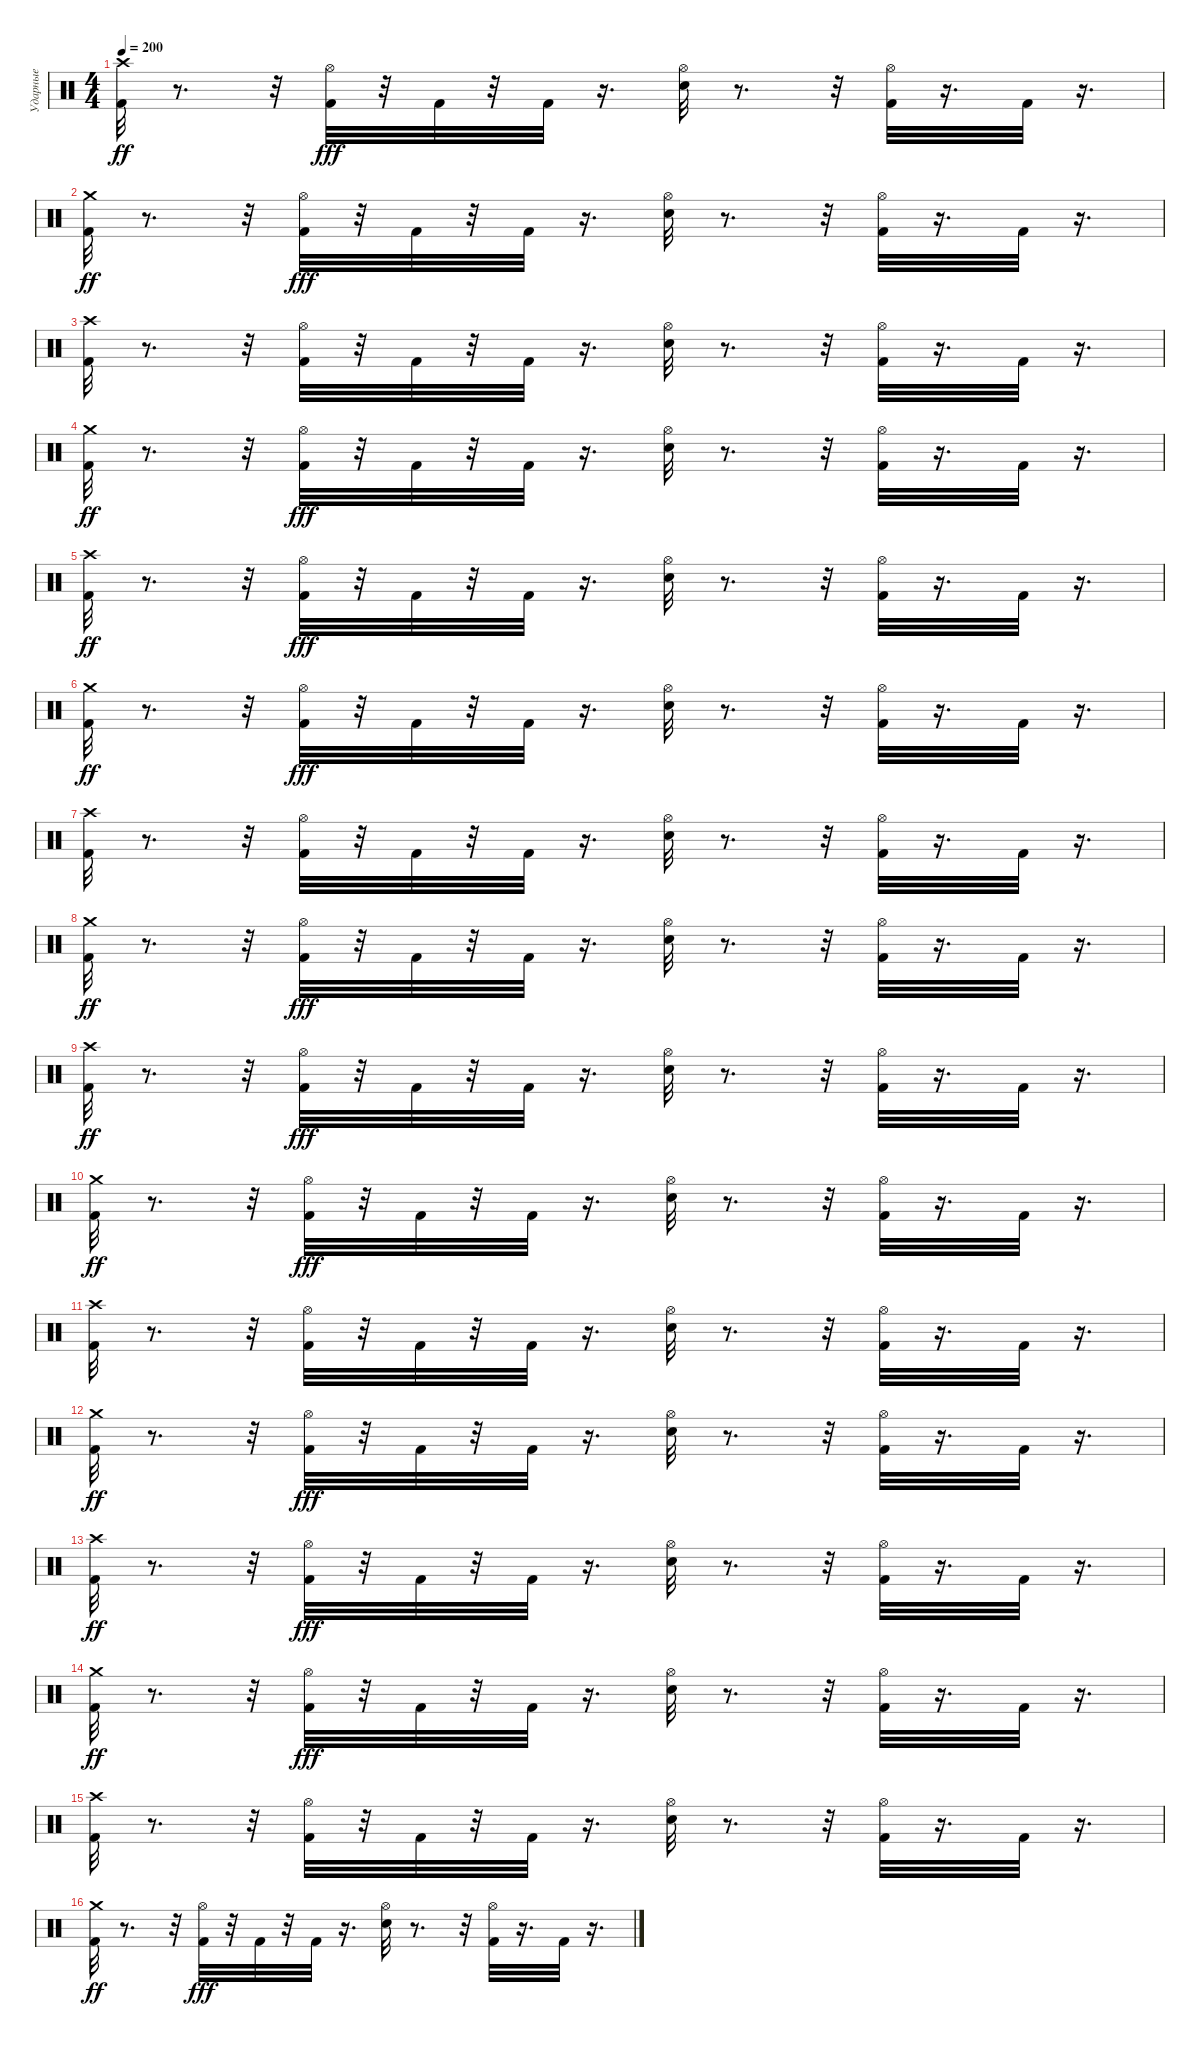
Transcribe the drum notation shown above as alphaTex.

\track ("Ударные" "Ударные") {instrument percussion}
\staff {score}
\articulation defaults
\ts (4 4)
\tempo 200
\clef neutral
\ks c
("Kick (hit) 2" "Crash high (hit)").32{dy ff} r.8{d} r.32 ("Kick (hit) 2" "Hi-Hat (open)").32{dy fff} r.32 "Kick (hit) 2".32 r.32 "Kick (hit) 2".32 r.16{d} ("Hi-Hat (open)" "Snare (hit) 2").32 r.8{d} r.32 ("Kick (hit) 2" "Hi-Hat (open)").32 r.16{d} "Kick (hit) 2".32 r.16{d} |
("Kick (hit) 2" "Crash medium (hit)").32{dy ff} r.8{d} r.32 ("Hi-Hat (open)" "Kick (hit) 2").32{dy fff} r.32 "Kick (hit) 2".32 r.32 "Kick (hit) 2".32 r.16{d} ("Snare (hit) 2" "Hi-Hat (open)").32 r.8{d} r.32 ("Kick (hit) 2" "Hi-Hat (open)").32 r.16{d} "Kick (hit) 2".32 r.16{d} |
("Crash high (hit)" "Kick (hit) 2").32 r.8{d} r.32 ("Kick (hit) 2" "Hi-Hat (open)").32 r.32 "Kick (hit) 2".32 r.32 "Kick (hit) 2".32 r.16{d} ("Snare (hit) 2" "Hi-Hat (open)").32 r.8{d} r.32 ("Hi-Hat (open)" "Kick (hit) 2").32 r.16{d} "Kick (hit) 2".32 r.16{d} |
("Kick (hit) 2" "Crash medium (hit)").32{dy ff} r.8{d} r.32 ("Hi-Hat (open)" "Kick (hit) 2").32{dy fff} r.32 "Kick (hit) 2".32 r.32 "Kick (hit) 2".32 r.16{d} ("Hi-Hat (open)" "Snare (hit) 2").32 r.8{d} r.32 ("Kick (hit) 2" "Hi-Hat (open)").32 r.16{d} "Kick (hit) 2".32 r.16{d} |
("Kick (hit) 2" "Crash high (hit)").32{dy ff} r.8{d} r.32 ("Kick (hit) 2" "Hi-Hat (open)").32{dy fff} r.32 "Kick (hit) 2".32 r.32 "Kick (hit) 2".32 r.16{d} ("Snare (hit) 2" "Hi-Hat (open)").32 r.8{d} r.32 ("Kick (hit) 2" "Hi-Hat (open)").32 r.16{d} "Kick (hit) 2".32 r.16{d} |
("Kick (hit) 2" "Crash medium (hit)").32{dy ff} r.8{d} r.32 ("Kick (hit) 2" "Hi-Hat (open)").32{dy fff} r.32 "Kick (hit) 2".32 r.32 "Kick (hit) 2".32 r.16{d} ("Snare (hit) 2" "Hi-Hat (open)").32 r.8{d} r.32 ("Kick (hit) 2" "Hi-Hat (open)").32 r.16{d} "Kick (hit) 2".32 r.16{d} |
("Crash high (hit)" "Kick (hit) 2").32 r.8{d} r.32 ("Kick (hit) 2" "Hi-Hat (open)").32 r.32 "Kick (hit) 2".32 r.32 "Kick (hit) 2".32 r.16{d} ("Snare (hit) 2" "Hi-Hat (open)").32 r.8{d} r.32 ("Hi-Hat (open)" "Kick (hit) 2").32 r.16{d} "Kick (hit) 2".32 r.16{d} |
("Kick (hit) 2" "Crash medium (hit)").32{dy ff} r.8{d} r.32 ("Hi-Hat (open)" "Kick (hit) 2").32{dy fff} r.32 "Kick (hit) 2".32 r.32 "Kick (hit) 2".32 r.16{d} ("Hi-Hat (open)" "Snare (hit) 2").32 r.8{d} r.32 ("Kick (hit) 2" "Hi-Hat (open)").32 r.16{d} "Kick (hit) 2".32 r.16{d} |
("Kick (hit) 2" "Crash high (hit)").32{dy ff} r.8{d} r.32 ("Kick (hit) 2" "Hi-Hat (open)").32{dy fff} r.32 "Kick (hit) 2".32 r.32 "Kick (hit) 2".32 r.16{d} ("Snare (hit) 2" "Hi-Hat (open)").32 r.8{d} r.32 ("Kick (hit) 2" "Hi-Hat (open)").32 r.16{d} "Kick (hit) 2".32 r.16{d} |
("Kick (hit) 2" "Crash medium (hit)").32{dy ff} r.8{d} r.32 ("Kick (hit) 2" "Hi-Hat (open)").32{dy fff} r.32 "Kick (hit) 2".32 r.32 "Kick (hit) 2".32 r.16{d} ("Snare (hit) 2" "Hi-Hat (open)").32 r.8{d} r.32 ("Kick (hit) 2" "Hi-Hat (open)").32 r.16{d} "Kick (hit) 2".32 r.16{d} |
("Crash high (hit)" "Kick (hit) 2").32 r.8{d} r.32 ("Kick (hit) 2" "Hi-Hat (open)").32 r.32 "Kick (hit) 2".32 r.32 "Kick (hit) 2".32 r.16{d} ("Snare (hit) 2" "Hi-Hat (open)").32 r.8{d} r.32 ("Hi-Hat (open)" "Kick (hit) 2").32 r.16{d} "Kick (hit) 2".32 r.16{d} |
("Kick (hit) 2" "Crash medium (hit)").32{dy ff} r.8{d} r.32 ("Hi-Hat (open)" "Kick (hit) 2").32{dy fff} r.32 "Kick (hit) 2".32 r.32 "Kick (hit) 2".32 r.16{d} ("Hi-Hat (open)" "Snare (hit) 2").32 r.8{d} r.32 ("Kick (hit) 2" "Hi-Hat (open)").32 r.16{d} "Kick (hit) 2".32 r.16{d} |
("Kick (hit) 2" "Crash high (hit)").32{dy ff} r.8{d} r.32 ("Kick (hit) 2" "Hi-Hat (open)").32{dy fff} r.32 "Kick (hit) 2".32 r.32 "Kick (hit) 2".32 r.16{d} ("Snare (hit) 2" "Hi-Hat (open)").32 r.8{d} r.32 ("Kick (hit) 2" "Hi-Hat (open)").32 r.16{d} "Kick (hit) 2".32 r.16{d} |
("Kick (hit) 2" "Crash medium (hit)").32{dy ff} r.8{d} r.32 ("Kick (hit) 2" "Hi-Hat (open)").32{dy fff} r.32 "Kick (hit) 2".32 r.32 "Kick (hit) 2".32 r.16{d} ("Snare (hit) 2" "Hi-Hat (open)").32 r.8{d} r.32 ("Kick (hit) 2" "Hi-Hat (open)").32 r.16{d} "Kick (hit) 2".32 r.16{d} |
("Crash high (hit)" "Kick (hit) 2").32 r.8{d} r.32 ("Kick (hit) 2" "Hi-Hat (open)").32 r.32 "Kick (hit) 2".32 r.32 "Kick (hit) 2".32 r.16{d} ("Snare (hit) 2" "Hi-Hat (open)").32 r.8{d} r.32 ("Hi-Hat (open)" "Kick (hit) 2").32 r.16{d} "Kick (hit) 2".32 r.16{d} |
("Kick (hit) 2" "Crash medium (hit)").32{dy ff} r.8{d} r.32 ("Hi-Hat (open)" "Kick (hit) 2").32{dy fff} r.32 "Kick (hit) 2".32 r.32 "Kick (hit) 2".32 r.16{d} ("Hi-Hat (open)" "Snare (hit) 2").32 r.8{d} r.32 ("Kick (hit) 2" "Hi-Hat (open)").32 r.16{d} "Kick (hit) 2".32 r.16{d}
